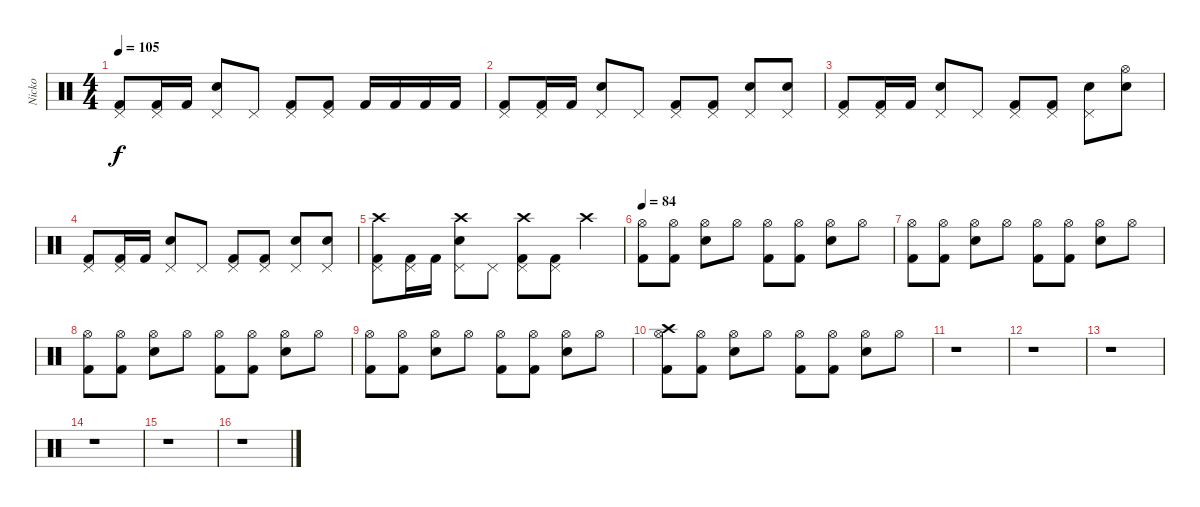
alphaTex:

\track ("Nicko" "Nicko") {instrument percussion}
\staff {score}
\articulation defaults
\ts (4 4)
\tempo 105
\clef neutral
\ks c
("Kick (hit) 2" "Pedal Hi-Hat (hit)").8{dy f} ("Kick (hit) 2" "Pedal Hi-Hat (hit)").16 "Kick (hit) 2".16 ("Snare (hit) 2" "Pedal Hi-Hat (hit)").8 "Pedal Hi-Hat (hit)".8 ("Kick (hit) 2" "Pedal Hi-Hat (hit)").8 ("Kick (hit) 2" "Pedal Hi-Hat (hit)").8 "Kick (hit) 2".16 "Kick (hit) 2".16 "Kick (hit) 2".16 "Kick (hit) 2".16 |
("Kick (hit) 2" "Pedal Hi-Hat (hit)").8 ("Kick (hit) 2" "Pedal Hi-Hat (hit)").16 "Kick (hit) 2".16 ("Snare (hit) 2" "Pedal Hi-Hat (hit)").8 "Pedal Hi-Hat (hit)".8 ("Kick (hit) 2" "Pedal Hi-Hat (hit)").8 ("Kick (hit) 2" "Pedal Hi-Hat (hit)").8 ("Snare (hit) 2" "Pedal Hi-Hat (hit)").8 ("Snare (hit) 2" "Pedal Hi-Hat (hit)").8 |
("Kick (hit) 2" "Pedal Hi-Hat (hit)").8 ("Kick (hit) 2" "Pedal Hi-Hat (hit)").16 "Kick (hit) 2".16 ("Snare (hit) 2" "Pedal Hi-Hat (hit)").8 "Pedal Hi-Hat (hit)".8 ("Kick (hit) 2" "Pedal Hi-Hat (hit)").8 ("Kick (hit) 2" "Pedal Hi-Hat (hit)").8 ("Snare (hit) 2" "Pedal Hi-Hat (hit)").8 ("Snare (hit) 2" "Hi-Hat (open)").8 |
("Kick (hit) 2" "Pedal Hi-Hat (hit)").8 ("Kick (hit) 2" "Pedal Hi-Hat (hit)").16 "Kick (hit) 2".16 ("Snare (hit) 2" "Pedal Hi-Hat (hit)").8 "Pedal Hi-Hat (hit)".8 ("Kick (hit) 2" "Pedal Hi-Hat (hit)").8 ("Kick (hit) 2" "Pedal Hi-Hat (hit)").8 ("Snare (hit) 2" "Pedal Hi-Hat (hit)").8 ("Snare (hit) 2" "Pedal Hi-Hat (hit)").8 |
("Kick (hit) 2" "Pedal Hi-Hat (hit)" "Crash high (hit)").8 ("Kick (hit) 2" "Pedal Hi-Hat (hit)").16 "Kick (hit) 2".16 ("Snare (hit) 2" "Pedal Hi-Hat (hit)" "Crash high (hit)").8 "Pedal Hi-Hat (hit)".8 ("Kick (hit) 2" "Pedal Hi-Hat (hit)" "Crash high (hit)").8 ("Kick (hit) 2" "Pedal Hi-Hat (hit)").8 "Crash high (hit)".4 |
\tempo 84
("Kick (hit) 2" "Hi-Hat (open)").8 ("Kick (hit) 2" "Hi-Hat (open)").8 ("Snare (hit) 2" "Hi-Hat (open)").8 "Hi-Hat (open)".8 ("Kick (hit) 2" "Hi-Hat (open)").8 ("Kick (hit) 2" "Hi-Hat (open)").8 ("Snare (hit) 2" "Hi-Hat (open)").8 "Hi-Hat (open)".8 |
("Kick (hit) 2" "Hi-Hat (open)").8 ("Kick (hit) 2" "Hi-Hat (open)").8 ("Snare (hit) 2" "Hi-Hat (open)").8 "Hi-Hat (open)".8 ("Kick (hit) 2" "Hi-Hat (open)").8 ("Kick (hit) 2" "Hi-Hat (open)").8 ("Snare (hit) 2" "Hi-Hat (open)").8 "Hi-Hat (open)".8 |
("Kick (hit) 2" "Hi-Hat (open)").8 ("Kick (hit) 2" "Hi-Hat (open)").8 ("Snare (hit) 2" "Hi-Hat (open)").8 "Hi-Hat (open)".8 ("Kick (hit) 2" "Hi-Hat (open)").8 ("Kick (hit) 2" "Hi-Hat (open)").8 ("Snare (hit) 2" "Hi-Hat (open)").8 "Hi-Hat (open)".8 |
("Kick (hit) 2" "Hi-Hat (open)").8 ("Kick (hit) 2" "Hi-Hat (open)").8 ("Snare (hit) 2" "Hi-Hat (open)").8 "Hi-Hat (open)".8 ("Kick (hit) 2" "Hi-Hat (open)").8 ("Kick (hit) 2" "Hi-Hat (open)").8 ("Snare (hit) 2" "Hi-Hat (open)").8 "Hi-Hat (open)".8 |
("Kick (hit) 2" "Hi-Hat (open)" "Crash high (hit)").8 ("Kick (hit) 2" "Hi-Hat (open)").8 ("Snare (hit) 2" "Hi-Hat (open)").8 "Hi-Hat (open)".8 ("Kick (hit) 2" "Hi-Hat (open)").8 ("Kick (hit) 2" "Hi-Hat (open)").8 ("Snare (hit) 2" "Hi-Hat (open)").8 "Hi-Hat (open)".8 |
r.1 |
r.1 |
r.1 |
r.1 |
r.1 |
r.1
